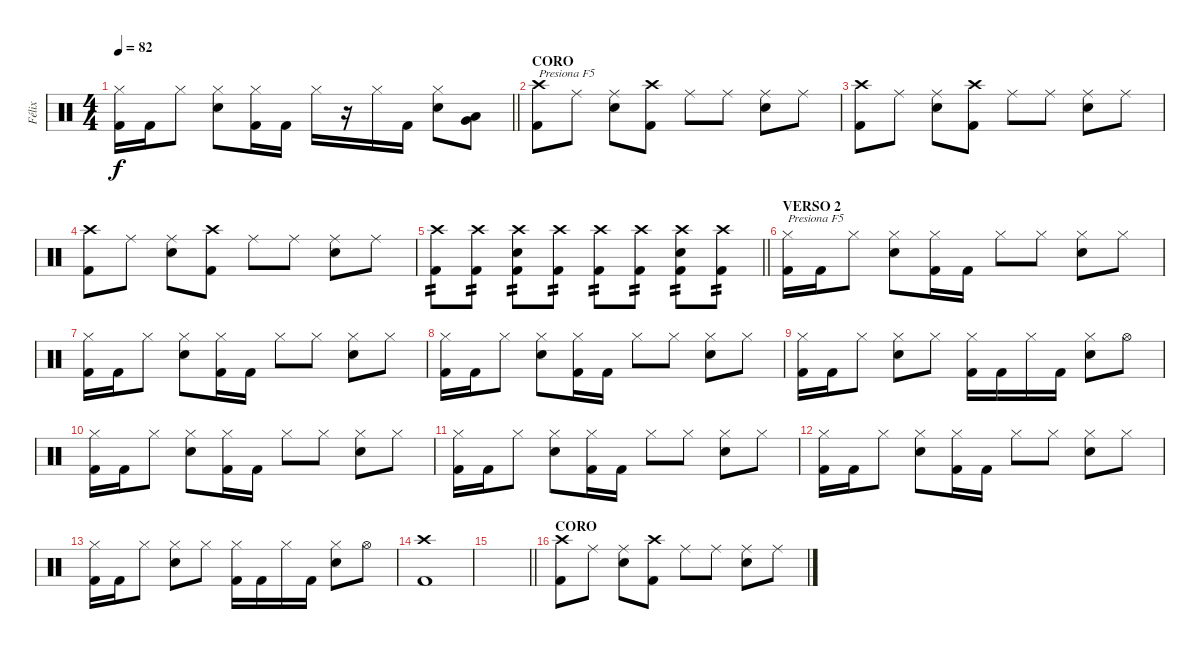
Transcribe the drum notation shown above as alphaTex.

\track ("Félix" "Félix") {instrument percussion}
\staff {score}
\articulation defaults
\ts (4 4)
\tempo 82
\clef neutral
\barLineRight lightlight
\ks c
("Hi-Hat (closed)" "Kick (hit) 2").16{dy f} "Kick (hit) 2".16 "Hi-Hat (closed)".8 ("Hi-Hat (closed)" "Snare (hit) 2").8 ("Hi-Hat (closed)" "Kick (hit) 2").16 "Kick (hit) 2".16 "Hi-Hat (closed)".16 r.16 "Hi-Hat (closed)".16 "Kick (hit) 2".16 ("Hi-Hat (closed)" "Snare (hit) 2").8 ("Very Low Tom (hit)" "Low Tom (hit)").8 |
\section ("" "CORO")
("Crash high (hit)" "Kick (hit) 2").8{txt "Presiona F5"} "Ride (middle)".8 ("Ride (middle)" "Snare (hit) 2").8 ("Crash high (hit)" "Kick (hit) 2").8 "Ride (middle)".8 "Ride (middle)".8 ("Ride (middle)" "Snare (hit) 2").8 "Ride (middle)".8 |
("Crash high (hit)" "Kick (hit) 2").8 "Ride (middle)".8 ("Ride (middle)" "Snare (hit) 2").8 ("Crash high (hit)" "Kick (hit) 2").8 "Ride (middle)".8 "Ride (middle)".8 ("Ride (middle)" "Snare (hit) 2").8 "Ride (middle)".8 |
("Crash high (hit)" "Kick (hit) 2").8 "Ride (middle)".8 ("Ride (middle)" "Snare (hit) 2").8 ("Crash high (hit)" "Kick (hit) 2").8 "Ride (middle)".8 "Ride (middle)".8 ("Ride (middle)" "Snare (hit) 2").8 "Ride (middle)".8 |
\barLineRight lightlight
("Crash high (hit)" "Kick (hit) 2").8{tp 2} ("Crash high (hit)" "Kick (hit) 2").8{tp 2} ("Crash high (hit)" "Snare (hit) 2" "Kick (hit) 2").8{tp 2} ("Crash high (hit)" "Kick (hit) 2").8{tp 2} ("Crash high (hit)" "Kick (hit) 2").8{tp 2} ("Crash high (hit)" "Kick (hit) 2").8{tp 2} ("Crash high (hit)" "Snare (hit) 2" "Kick (hit) 2").8{tp 2} ("Crash high (hit)" "Kick (hit) 2").8{tp 2} |
\section ("" "VERSO 2")
("Hi-Hat (closed)" "Kick (hit) 2").16{txt "Presiona F5"} "Kick (hit) 2".16 "Hi-Hat (closed)".8 ("Hi-Hat (closed)" "Snare (hit) 2").8 ("Hi-Hat (closed)" "Kick (hit) 2").16 "Kick (hit) 2".16 "Hi-Hat (closed)".8 "Hi-Hat (closed)".8 ("Hi-Hat (closed)" "Snare (hit) 2").8 "Hi-Hat (closed)".8 |
("Hi-Hat (closed)" "Kick (hit) 2").16 "Kick (hit) 2".16 "Hi-Hat (closed)".8 ("Hi-Hat (closed)" "Snare (hit) 2").8 ("Hi-Hat (closed)" "Kick (hit) 2").16 "Kick (hit) 2".16 "Hi-Hat (closed)".8 "Hi-Hat (closed)".8 ("Hi-Hat (closed)" "Snare (hit) 2").8 "Hi-Hat (closed)".8 |
("Hi-Hat (closed)" "Kick (hit) 2").16 "Kick (hit) 2".16 "Hi-Hat (closed)".8 ("Hi-Hat (closed)" "Snare (hit) 2").8 ("Hi-Hat (closed)" "Kick (hit) 2").16 "Kick (hit) 2".16 "Hi-Hat (closed)".8 "Hi-Hat (closed)".8 ("Hi-Hat (closed)" "Snare (hit) 2").8 "Hi-Hat (closed)".8 |
("Hi-Hat (closed)" "Kick (hit) 2").16 "Kick (hit) 2".16 "Hi-Hat (closed)".8 ("Hi-Hat (closed)" "Snare (hit) 2").8 "Hi-Hat (closed)".8 ("Hi-Hat (closed)" "Kick (hit) 2").16 "Kick (hit) 2".16 "Hi-Hat (closed)".16 "Kick (hit) 2".16 ("Hi-Hat (closed)" "Snare (hit) 2").8 "Hi-Hat (open)".8 |
("Hi-Hat (closed)" "Kick (hit) 2").16 "Kick (hit) 2".16 "Hi-Hat (closed)".8 ("Hi-Hat (closed)" "Snare (hit) 2").8 ("Hi-Hat (closed)" "Kick (hit) 2").16 "Kick (hit) 2".16 "Hi-Hat (closed)".8 "Hi-Hat (closed)".8 ("Hi-Hat (closed)" "Snare (hit) 2").8 "Hi-Hat (closed)".8 |
("Hi-Hat (closed)" "Kick (hit) 2").16 "Kick (hit) 2".16 "Hi-Hat (closed)".8 ("Hi-Hat (closed)" "Snare (hit) 2").8 ("Hi-Hat (closed)" "Kick (hit) 2").16 "Kick (hit) 2".16 "Hi-Hat (closed)".8 "Hi-Hat (closed)".8 ("Hi-Hat (closed)" "Snare (hit) 2").8 "Hi-Hat (closed)".8 |
("Hi-Hat (closed)" "Kick (hit) 2").16 "Kick (hit) 2".16 "Hi-Hat (closed)".8 ("Hi-Hat (closed)" "Snare (hit) 2").8 ("Hi-Hat (closed)" "Kick (hit) 2").16 "Kick (hit) 2".16 "Hi-Hat (closed)".8 "Hi-Hat (closed)".8 ("Hi-Hat (closed)" "Snare (hit) 2").8 "Hi-Hat (closed)".8 |
("Hi-Hat (closed)" "Kick (hit) 2").16 "Kick (hit) 2".16 "Hi-Hat (closed)".8 ("Hi-Hat (closed)" "Snare (hit) 2").8 "Hi-Hat (closed)".8 ("Hi-Hat (closed)" "Kick (hit) 2").16 "Kick (hit) 2".16 "Hi-Hat (closed)".16 "Kick (hit) 2".16 ("Hi-Hat (closed)" "Snare (hit) 2").8 "Hi-Hat (open)".8 |
("Crash high (hit)" "Kick (hit) 2").1 |
\barLineRight lightlight
|
\section ("" "CORO")
("Crash high (hit)" "Kick (hit) 2").8 "Ride (middle)".8 ("Ride (middle)" "Snare (hit) 2").8 ("Crash high (hit)" "Kick (hit) 2").8 "Ride (middle)".8 "Ride (middle)".8 ("Ride (middle)" "Snare (hit) 2").8 "Ride (middle)".8
